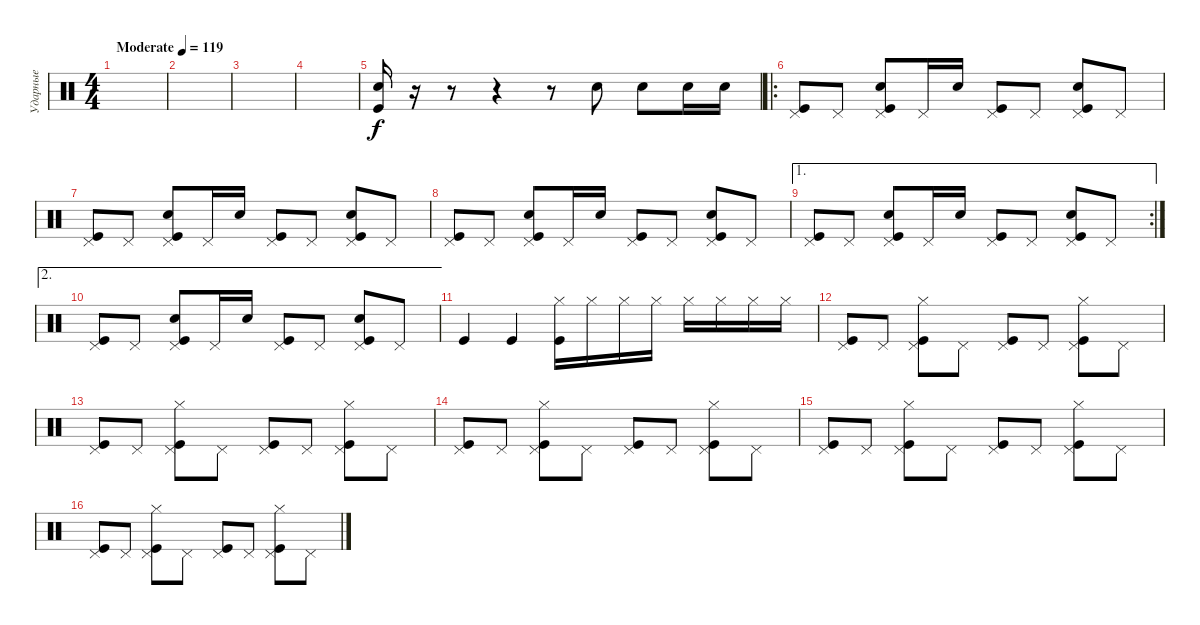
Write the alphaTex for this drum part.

\track ("Ударные" "Ударные") {instrument percussion}
\staff {score}
\articulation defaults
\ts (4 4)
\tempo (119 "Moderate")
\clef neutral
\ks c
|
|
|
|
("Kick (hit)" "Electric Snare (hit)").16 r.16 r.8 r.4 r.8 "Electric Snare (hit)".8 "Electric Snare (hit)".8 "Electric Snare (hit)".16 "Electric Snare (hit)".16 |
\ro
("Kick (hit)" "Pedal Hi-Hat (hit)").8 "Pedal Hi-Hat (hit)".8 ("Kick (hit)" "Electric Snare (hit)" "Pedal Hi-Hat (hit)").8 "Pedal Hi-Hat (hit)".16 "Electric Snare (hit)".16 ("Kick (hit)" "Pedal Hi-Hat (hit)").8 "Pedal Hi-Hat (hit)".8 ("Kick (hit)" "Electric Snare (hit)" "Pedal Hi-Hat (hit)").8 "Pedal Hi-Hat (hit)".8 |
("Kick (hit)" "Pedal Hi-Hat (hit)").8 "Pedal Hi-Hat (hit)".8 ("Kick (hit)" "Electric Snare (hit)" "Pedal Hi-Hat (hit)").8 "Pedal Hi-Hat (hit)".16 "Electric Snare (hit)".16 ("Kick (hit)" "Pedal Hi-Hat (hit)").8 "Pedal Hi-Hat (hit)".8 ("Kick (hit)" "Electric Snare (hit)" "Pedal Hi-Hat (hit)").8 "Pedal Hi-Hat (hit)".8 |
("Kick (hit)" "Pedal Hi-Hat (hit)").8 "Pedal Hi-Hat (hit)".8 ("Kick (hit)" "Electric Snare (hit)" "Pedal Hi-Hat (hit)").8 "Pedal Hi-Hat (hit)".16 "Electric Snare (hit)".16 ("Kick (hit)" "Pedal Hi-Hat (hit)").8 "Pedal Hi-Hat (hit)".8 ("Kick (hit)" "Electric Snare (hit)" "Pedal Hi-Hat (hit)").8 "Pedal Hi-Hat (hit)".8 |
\ae 1
\rc 2
("Kick (hit)" "Pedal Hi-Hat (hit)").8 "Pedal Hi-Hat (hit)".8 ("Kick (hit)" "Electric Snare (hit)" "Pedal Hi-Hat (hit)").8 "Pedal Hi-Hat (hit)".16 "Electric Snare (hit)".16 ("Kick (hit)" "Pedal Hi-Hat (hit)").8 "Pedal Hi-Hat (hit)".8 ("Kick (hit)" "Electric Snare (hit)" "Pedal Hi-Hat (hit)").8 "Pedal Hi-Hat (hit)".8 |
\ae 2
("Kick (hit)" "Pedal Hi-Hat (hit)").8 "Pedal Hi-Hat (hit)".8 ("Kick (hit)" "Electric Snare (hit)" "Pedal Hi-Hat (hit)").8 "Pedal Hi-Hat (hit)".16 "Electric Snare (hit)".16 ("Kick (hit)" "Pedal Hi-Hat (hit)").8 "Pedal Hi-Hat (hit)".8 ("Kick (hit)" "Electric Snare (hit)" "Pedal Hi-Hat (hit)").8 "Pedal Hi-Hat (hit)".8 |
"Kick (hit)".4 "Kick (hit)".4 ("Kick (hit)" "Hi-Hat (closed)").16 "Hi-Hat (closed)".16 "Hi-Hat (closed)".16 "Hi-Hat (closed)".16 "Hi-Hat (closed)".16 "Hi-Hat (closed)".16 "Hi-Hat (closed)".16 "Hi-Hat (closed)".16 |
("Kick (hit)" "Pedal Hi-Hat (hit)").8 "Pedal Hi-Hat (hit)".8 ("Kick (hit)" "Pedal Hi-Hat (hit)" "Hi-Hat (closed)").8 "Pedal Hi-Hat (hit)".8 ("Kick (hit)" "Pedal Hi-Hat (hit)").8 "Pedal Hi-Hat (hit)".8 ("Kick (hit)" "Pedal Hi-Hat (hit)" "Hi-Hat (closed)").8 "Pedal Hi-Hat (hit)".8 |
("Kick (hit)" "Pedal Hi-Hat (hit)").8 "Pedal Hi-Hat (hit)".8 ("Kick (hit)" "Pedal Hi-Hat (hit)" "Hi-Hat (closed)").8 "Pedal Hi-Hat (hit)".8 ("Kick (hit)" "Pedal Hi-Hat (hit)").8 "Pedal Hi-Hat (hit)".8 ("Kick (hit)" "Pedal Hi-Hat (hit)" "Hi-Hat (closed)").8 "Pedal Hi-Hat (hit)".8 |
("Kick (hit)" "Pedal Hi-Hat (hit)").8 "Pedal Hi-Hat (hit)".8 ("Kick (hit)" "Pedal Hi-Hat (hit)" "Hi-Hat (closed)").8 "Pedal Hi-Hat (hit)".8 ("Kick (hit)" "Pedal Hi-Hat (hit)").8 "Pedal Hi-Hat (hit)".8 ("Kick (hit)" "Pedal Hi-Hat (hit)" "Hi-Hat (closed)").8 "Pedal Hi-Hat (hit)".8 |
("Kick (hit)" "Pedal Hi-Hat (hit)").8 "Pedal Hi-Hat (hit)".8 ("Kick (hit)" "Pedal Hi-Hat (hit)" "Hi-Hat (closed)").8 "Pedal Hi-Hat (hit)".8 ("Kick (hit)" "Pedal Hi-Hat (hit)").8 "Pedal Hi-Hat (hit)".8 ("Kick (hit)" "Pedal Hi-Hat (hit)" "Hi-Hat (closed)").8 "Pedal Hi-Hat (hit)".8 |
("Kick (hit)" "Pedal Hi-Hat (hit)").8 "Pedal Hi-Hat (hit)".8 ("Kick (hit)" "Pedal Hi-Hat (hit)" "Hi-Hat (closed)").8 "Pedal Hi-Hat (hit)".8 ("Kick (hit)" "Pedal Hi-Hat (hit)").8 "Pedal Hi-Hat (hit)".8 ("Kick (hit)" "Pedal Hi-Hat (hit)" "Hi-Hat (closed)").8 "Pedal Hi-Hat (hit)".8
